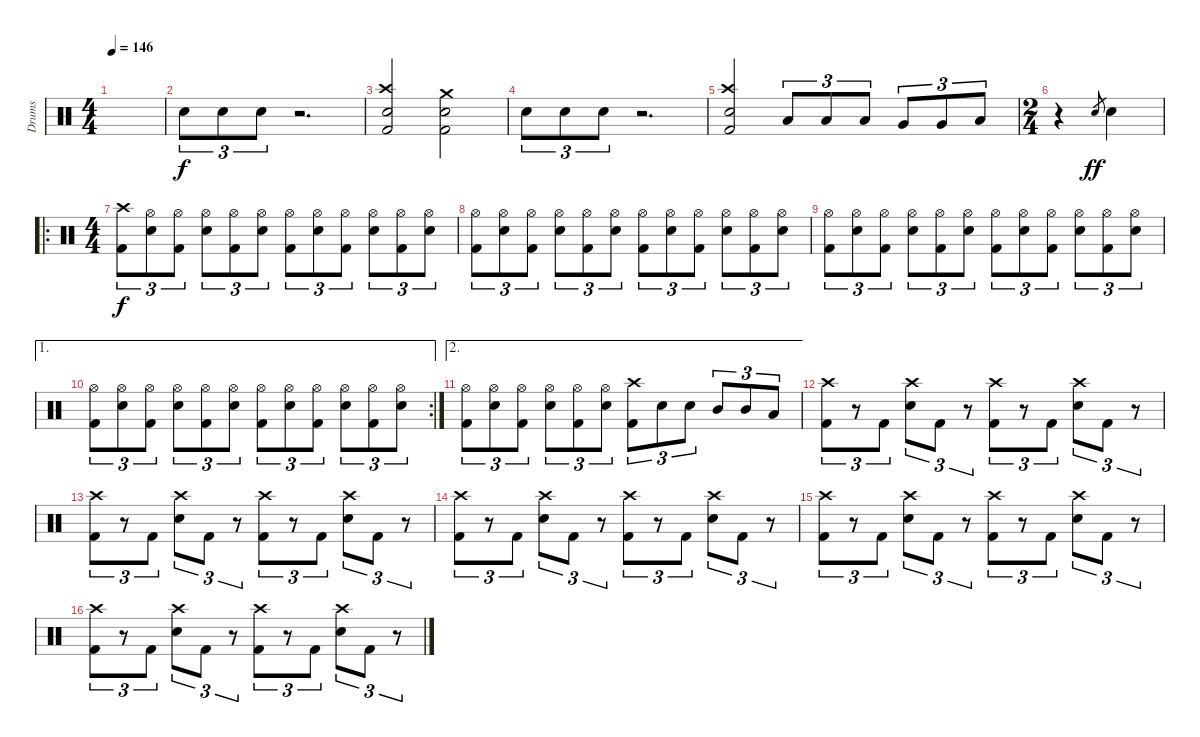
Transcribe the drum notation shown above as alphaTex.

\track ("Drums" "Drums") {instrument percussion}
\staff {score}
\articulation defaults
\ts (4 4)
\tempo 146
\clef neutral
\ks c
|
"Snare (hit) 2".8{tu (3 2)} "Snare (hit) 2".8{tu (3 2)} "Snare (hit) 2".8{tu (3 2)} r.2{d} |
("Crash high (hit)" "Snare (hit) 2" "Kick (hit) 2").2 ("Crash medium (hit)" "Snare (hit) 2" "Kick (hit) 2").2 |
"Snare (hit) 2".8{tu (3 2)} "Snare (hit) 2".8{tu (3 2)} "Snare (hit) 2".8{tu (3 2)} r.2{d} |
("Crash high (hit)" "Snare (hit) 2" "Kick (hit) 2").2 "Low Floor Tom (hit)".8{tu (3 2)} "Low Floor Tom (hit)".8{tu (3 2)} "Low Floor Tom (hit)".8{tu (3 2)} "Very Low Tom (hit)".8{tu (3 2)} "Very Low Tom (hit)".8{tu (3 2)} "Low Floor Tom (hit)".8{tu (3 2)} |
\ts (2 4)
r.4 "Snare (hit) 2".8{gr dy ff} "Snare (hit) 2".4 |
\ro
\ts (4 4)
("Crash high (hit)" "Kick (hit) 2").8{tu (3 2) dy f} ("Hi-Hat (open)" "Snare (hit) 2").8{tu (3 2)} ("Hi-Hat (open)" "Kick (hit) 2").8{tu (3 2)} ("Hi-Hat (open)" "Snare (hit) 2").8{tu (3 2)} ("Hi-Hat (open)" "Kick (hit) 2").8{tu (3 2)} ("Hi-Hat (open)" "Snare (hit) 2").8{tu (3 2)} ("Hi-Hat (open)" "Kick (hit) 2").8{tu (3 2)} ("Hi-Hat (open)" "Snare (hit) 2").8{tu (3 2)} ("Hi-Hat (open)" "Kick (hit) 2").8{tu (3 2)} ("Hi-Hat (open)" "Snare (hit) 2").8{tu (3 2)} ("Hi-Hat (open)" "Kick (hit) 2").8{tu (3 2)} ("Hi-Hat (open)" "Snare (hit) 2").8{tu (3 2)} |
("Hi-Hat (open)" "Kick (hit) 2").8{tu (3 2)} ("Hi-Hat (open)" "Snare (hit) 2").8{tu (3 2)} ("Hi-Hat (open)" "Kick (hit) 2").8{tu (3 2)} ("Hi-Hat (open)" "Snare (hit) 2").8{tu (3 2)} ("Hi-Hat (open)" "Kick (hit) 2").8{tu (3 2)} ("Hi-Hat (open)" "Snare (hit) 2").8{tu (3 2)} ("Hi-Hat (open)" "Kick (hit) 2").8{tu (3 2)} ("Hi-Hat (open)" "Snare (hit) 2").8{tu (3 2)} ("Hi-Hat (open)" "Kick (hit) 2").8{tu (3 2)} ("Hi-Hat (open)" "Snare (hit) 2").8{tu (3 2)} ("Hi-Hat (open)" "Kick (hit) 2").8{tu (3 2)} ("Hi-Hat (open)" "Snare (hit) 2").8{tu (3 2)} |
("Hi-Hat (open)" "Kick (hit) 2").8{tu (3 2)} ("Hi-Hat (open)" "Snare (hit) 2").8{tu (3 2)} ("Hi-Hat (open)" "Kick (hit) 2").8{tu (3 2)} ("Hi-Hat (open)" "Snare (hit) 2").8{tu (3 2)} ("Hi-Hat (open)" "Kick (hit) 2").8{tu (3 2)} ("Hi-Hat (open)" "Snare (hit) 2").8{tu (3 2)} ("Hi-Hat (open)" "Kick (hit) 2").8{tu (3 2)} ("Hi-Hat (open)" "Snare (hit) 2").8{tu (3 2)} ("Hi-Hat (open)" "Kick (hit) 2").8{tu (3 2)} ("Hi-Hat (open)" "Snare (hit) 2").8{tu (3 2)} ("Hi-Hat (open)" "Kick (hit) 2").8{tu (3 2)} ("Hi-Hat (open)" "Snare (hit) 2").8{tu (3 2)} |
\ae 1
\rc 2
("Hi-Hat (open)" "Kick (hit) 2").8{tu (3 2)} ("Hi-Hat (open)" "Snare (hit) 2").8{tu (3 2)} ("Hi-Hat (open)" "Kick (hit) 2").8{tu (3 2)} ("Hi-Hat (open)" "Snare (hit) 2").8{tu (3 2)} ("Hi-Hat (open)" "Kick (hit) 2").8{tu (3 2)} ("Hi-Hat (open)" "Snare (hit) 2").8{tu (3 2)} ("Hi-Hat (open)" "Kick (hit) 2").8{tu (3 2)} ("Hi-Hat (open)" "Snare (hit) 2").8{tu (3 2)} ("Hi-Hat (open)" "Kick (hit) 2").8{tu (3 2)} ("Hi-Hat (open)" "Snare (hit) 2").8{tu (3 2)} ("Hi-Hat (open)" "Kick (hit) 2").8{tu (3 2)} ("Hi-Hat (open)" "Snare (hit) 2").8{tu (3 2)} |
\ae 2
("Hi-Hat (open)" "Kick (hit) 2").8{tu (3 2)} ("Hi-Hat (open)" "Snare (hit) 2").8{tu (3 2)} ("Hi-Hat (open)" "Kick (hit) 2").8{tu (3 2)} ("Hi-Hat (open)" "Snare (hit) 2").8{tu (3 2)} ("Hi-Hat (open)" "Kick (hit) 2").8{tu (3 2)} ("Hi-Hat (open)" "Snare (hit) 2").8{tu (3 2)} ("Crash high (hit)" "Kick (hit) 2").8{tu (3 2)} "Snare (hit) 2".8{tu (3 2)} "Snare (hit) 2".8{tu (3 2)} "Mid Tom (hit)".8{tu (3 2)} "Mid Tom (hit)".8{tu (3 2)} "Low Tom (hit)".8{tu (3 2)} |
("Crash high (hit)" "Kick (hit) 2").8{tu (3 2)} r.8{tu (3 2)} "Kick (hit) 2".8{tu (3 2)} ("Crash high (hit)" "Snare (hit) 2").8{tu (3 2)} "Kick (hit) 2".8{tu (3 2)} r.8{tu (3 2)} ("Crash high (hit)" "Kick (hit) 2").8{tu (3 2)} r.8{tu (3 2)} "Kick (hit) 2".8{tu (3 2)} ("Crash high (hit)" "Snare (hit) 2").8{tu (3 2)} "Kick (hit) 2".8{tu (3 2)} r.8{tu (3 2)} |
("Crash high (hit)" "Kick (hit) 2").8{tu (3 2)} r.8{tu (3 2)} "Kick (hit) 2".8{tu (3 2)} ("Crash high (hit)" "Snare (hit) 2").8{tu (3 2)} "Kick (hit) 2".8{tu (3 2)} r.8{tu (3 2)} ("Crash high (hit)" "Kick (hit) 2").8{tu (3 2)} r.8{tu (3 2)} "Kick (hit) 2".8{tu (3 2)} ("Crash high (hit)" "Snare (hit) 2").8{tu (3 2)} "Kick (hit) 2".8{tu (3 2)} r.8{tu (3 2)} |
("Crash high (hit)" "Kick (hit) 2").8{tu (3 2)} r.8{tu (3 2)} "Kick (hit) 2".8{tu (3 2)} ("Crash high (hit)" "Snare (hit) 2").8{tu (3 2)} "Kick (hit) 2".8{tu (3 2)} r.8{tu (3 2)} ("Crash high (hit)" "Kick (hit) 2").8{tu (3 2)} r.8{tu (3 2)} "Kick (hit) 2".8{tu (3 2)} ("Crash high (hit)" "Snare (hit) 2").8{tu (3 2)} "Kick (hit) 2".8{tu (3 2)} r.8{tu (3 2)} |
("Crash high (hit)" "Kick (hit) 2").8{tu (3 2)} r.8{tu (3 2)} "Kick (hit) 2".8{tu (3 2)} ("Crash high (hit)" "Snare (hit) 2").8{tu (3 2)} "Kick (hit) 2".8{tu (3 2)} r.8{tu (3 2)} ("Crash high (hit)" "Kick (hit) 2").8{tu (3 2)} r.8{tu (3 2)} "Kick (hit) 2".8{tu (3 2)} ("Crash high (hit)" "Snare (hit) 2").8{tu (3 2)} "Kick (hit) 2".8{tu (3 2)} r.8{tu (3 2)} |
("Crash high (hit)" "Kick (hit) 2").8{tu (3 2)} r.8{tu (3 2)} "Kick (hit) 2".8{tu (3 2)} ("Crash high (hit)" "Snare (hit) 2").8{tu (3 2)} "Kick (hit) 2".8{tu (3 2)} r.8{tu (3 2)} ("Crash high (hit)" "Kick (hit) 2").8{tu (3 2)} r.8{tu (3 2)} "Kick (hit) 2".8{tu (3 2)} ("Crash high (hit)" "Snare (hit) 2").8{tu (3 2)} "Kick (hit) 2".8{tu (3 2)} r.8{tu (3 2)}
